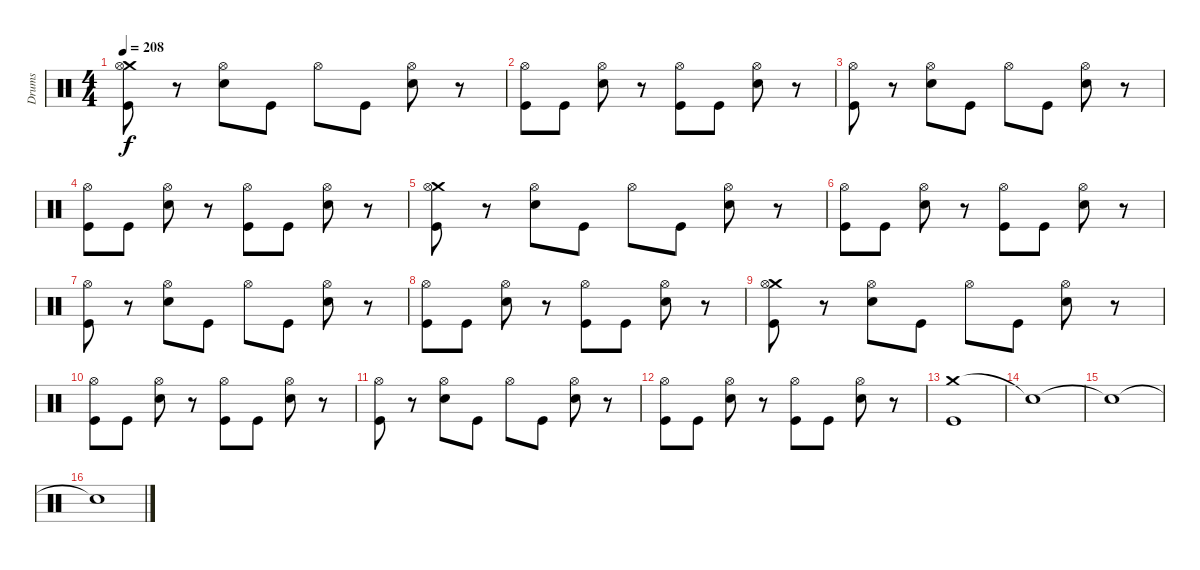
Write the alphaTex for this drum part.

\track ("Drums" "Drums") {instrument percussion}
\staff {score}
\articulation defaults
\ts (4 4)
\tempo 208
\clef neutral
\ks c
("Crash medium (hit)" "Hi-Hat (open)" "Kick (hit)").8{dy f} r.8 ("Hi-Hat (open)" "Electric Snare (hit)").8 "Kick (hit)".8 "Hi-Hat (open)".8 "Kick (hit)".8 ("Hi-Hat (open)" "Electric Snare (hit)").8 r.8 |
("Hi-Hat (open)" "Kick (hit)").8 "Kick (hit)".8 ("Hi-Hat (open)" "Electric Snare (hit)").8 r.8 ("Hi-Hat (open)" "Kick (hit)").8 "Kick (hit)".8 ("Hi-Hat (open)" "Electric Snare (hit)").8 r.8 |
("Hi-Hat (open)" "Kick (hit)").8 r.8 ("Hi-Hat (open)" "Electric Snare (hit)").8 "Kick (hit)".8 "Hi-Hat (open)".8 "Kick (hit)".8 ("Hi-Hat (open)" "Electric Snare (hit)").8 r.8 |
("Hi-Hat (open)" "Kick (hit)").8 "Kick (hit)".8 ("Hi-Hat (open)" "Electric Snare (hit)").8 r.8 ("Hi-Hat (open)" "Kick (hit)").8 "Kick (hit)".8 ("Hi-Hat (open)" "Electric Snare (hit)").8 r.8 |
("Crash medium (hit)" "Hi-Hat (open)" "Kick (hit)").8 r.8 ("Hi-Hat (open)" "Electric Snare (hit)").8 "Kick (hit)".8 "Hi-Hat (open)".8 "Kick (hit)".8 ("Hi-Hat (open)" "Electric Snare (hit)").8 r.8 |
("Hi-Hat (open)" "Kick (hit)").8 "Kick (hit)".8 ("Hi-Hat (open)" "Electric Snare (hit)").8 r.8 ("Hi-Hat (open)" "Kick (hit)").8 "Kick (hit)".8 ("Hi-Hat (open)" "Electric Snare (hit)").8 r.8 |
("Hi-Hat (open)" "Kick (hit)").8 r.8 ("Hi-Hat (open)" "Electric Snare (hit)").8 "Kick (hit)".8 "Hi-Hat (open)".8 "Kick (hit)".8 ("Hi-Hat (open)" "Electric Snare (hit)").8 r.8 |
("Hi-Hat (open)" "Kick (hit)").8 "Kick (hit)".8 ("Hi-Hat (open)" "Electric Snare (hit)").8 r.8 ("Hi-Hat (open)" "Kick (hit)").8 "Kick (hit)".8 ("Hi-Hat (open)" "Electric Snare (hit)").8 r.8 |
("Crash medium (hit)" "Hi-Hat (open)" "Kick (hit)").8 r.8 ("Hi-Hat (open)" "Electric Snare (hit)").8 "Kick (hit)".8 "Hi-Hat (open)".8 "Kick (hit)".8 ("Hi-Hat (open)" "Electric Snare (hit)").8 r.8 |
("Hi-Hat (open)" "Kick (hit)").8 "Kick (hit)".8 ("Hi-Hat (open)" "Electric Snare (hit)").8 r.8 ("Hi-Hat (open)" "Kick (hit)").8 "Kick (hit)".8 ("Hi-Hat (open)" "Electric Snare (hit)").8 r.8 |
("Hi-Hat (open)" "Kick (hit)").8 r.8 ("Hi-Hat (open)" "Electric Snare (hit)").8 "Kick (hit)".8 "Hi-Hat (open)".8 "Kick (hit)".8 ("Hi-Hat (open)" "Electric Snare (hit)").8 r.8 |
("Hi-Hat (open)" "Kick (hit)").8 "Kick (hit)".8 ("Hi-Hat (open)" "Electric Snare (hit)").8 r.8 ("Hi-Hat (open)" "Kick (hit)").8 "Kick (hit)".8 ("Hi-Hat (open)" "Electric Snare (hit)").8 r.8 |
("Crash medium (hit)" "Kick (hit)").1 |
"Snare (hit)"{t}.1 |
"Snare (hit)"{t}.1 |
"Snare (hit)"{t}.1
